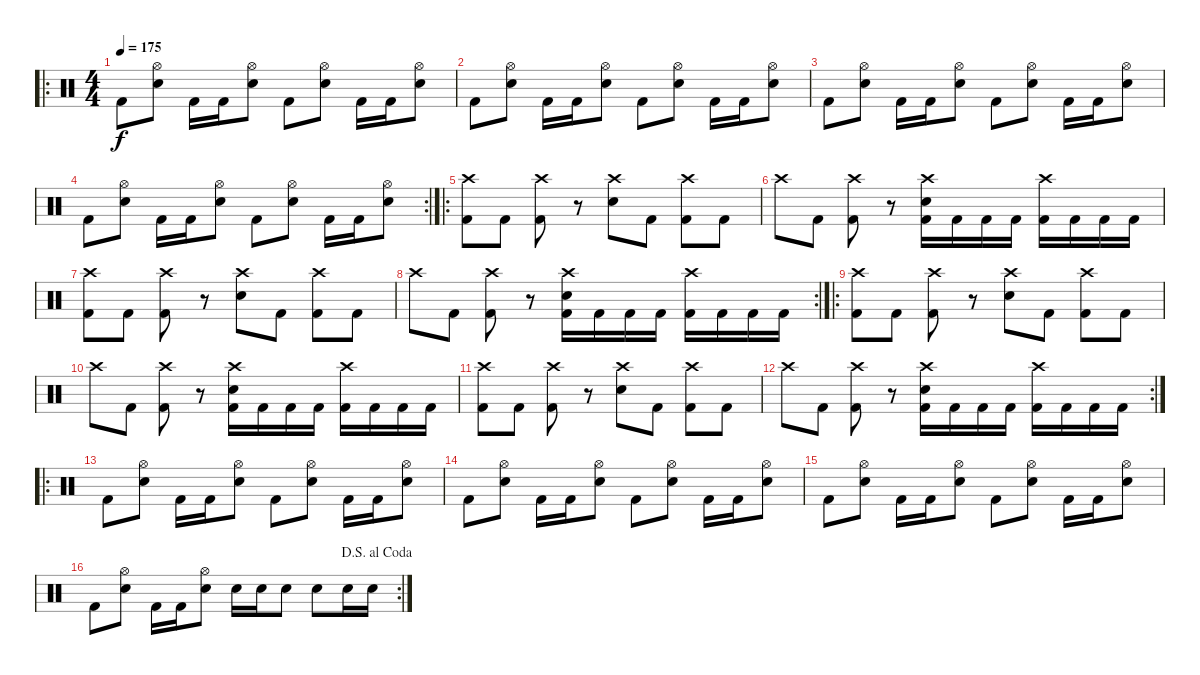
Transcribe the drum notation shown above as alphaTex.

\track "" {instrument percussion}
\staff {score}
\articulation defaults
\ro
\ts (4 4)
\tempo 175
\clef neutral
\ks c "Kick (hit) 2".8{dy f}
("Hi-Hat (open)" "Electric Snare (hit)").8 "Kick (hit) 2".16 "Kick (hit) 2".16 ("Hi-Hat (open)" "Electric Snare (hit)").8 "Kick (hit) 2".8 ("Hi-Hat (open)" "Electric Snare (hit)").8 "Kick (hit) 2".16 "Kick (hit) 2".16 ("Hi-Hat (open)" "Electric Snare (hit)").8 |
"Kick (hit) 2".8 ("Hi-Hat (open)" "Electric Snare (hit)").8 "Kick (hit) 2".16 "Kick (hit) 2".16 ("Hi-Hat (open)" "Electric Snare (hit)").8 "Kick (hit) 2".8 ("Hi-Hat (open)" "Electric Snare (hit)").8 "Kick (hit) 2".16 "Kick (hit) 2".16 ("Hi-Hat (open)" "Electric Snare (hit)").8 |
"Kick (hit) 2".8 ("Hi-Hat (open)" "Electric Snare (hit)").8 "Kick (hit) 2".16 "Kick (hit) 2".16 ("Hi-Hat (open)" "Electric Snare (hit)").8 "Kick (hit) 2".8 ("Hi-Hat (open)" "Electric Snare (hit)").8 "Kick (hit) 2".16 "Kick (hit) 2".16 ("Hi-Hat (open)" "Electric Snare (hit)").8 |
\rc 2 "Kick (hit) 2".8
("Hi-Hat (open)" "Electric Snare (hit)").8 "Kick (hit) 2".16 "Kick (hit) 2".16 ("Hi-Hat (open)" "Electric Snare (hit)").8 "Kick (hit) 2".8 ("Hi-Hat (open)" "Electric Snare (hit)").8 "Kick (hit) 2".16 "Kick (hit) 2".16 ("Hi-Hat (open)" "Electric Snare (hit)").8 |
\ro
("Crash high (hit)" "Kick (hit) 2").8 "Kick (hit) 2".8 ("Crash high (hit)" "Kick (hit) 2").8 r.8 ("Crash high (hit)" "Electric Snare (hit)").8 "Kick (hit) 2".8 ("Crash high (hit)" "Kick (hit) 2").8 "Kick (hit) 2".8 |
"Crash high (hit)".8 "Kick (hit) 2".8 ("Crash high (hit)" "Kick (hit) 2").8 r.8 ("Crash high (hit)" "Electric Snare (hit)" "Kick (hit) 2").16 "Kick (hit) 2".16 "Kick (hit) 2".16 "Kick (hit) 2".16 ("Crash high (hit)" "Kick (hit) 2").16 "Kick (hit) 2".16 "Kick (hit) 2".16 "Kick (hit) 2".16 |
("Crash high (hit)" "Kick (hit) 2").8 "Kick (hit) 2".8 ("Crash high (hit)" "Kick (hit) 2").8 r.8 ("Crash high (hit)" "Electric Snare (hit)").8 "Kick (hit) 2".8 ("Crash high (hit)" "Kick (hit) 2").8 "Kick (hit) 2".8 |
\rc 2 "Crash high (hit)".8 "Kick (hit) 2".8
("Crash high (hit)" "Kick (hit) 2").8 r.8 ("Crash high (hit)" "Electric Snare (hit)" "Kick (hit) 2").16 "Kick (hit) 2".16 "Kick (hit) 2".16 "Kick (hit) 2".16 ("Crash high (hit)" "Kick (hit) 2").16 "Kick (hit) 2".16 "Kick (hit) 2".16 "Kick (hit) 2".16 |
\ro
("Crash high (hit)" "Kick (hit) 2").8 "Kick (hit) 2".8 ("Crash high (hit)" "Kick (hit) 2").8 r.8 ("Crash high (hit)" "Electric Snare (hit)").8 "Kick (hit) 2".8 ("Crash high (hit)" "Kick (hit) 2").8 "Kick (hit) 2".8 |
"Crash high (hit)".8 "Kick (hit) 2".8 ("Crash high (hit)" "Kick (hit) 2").8 r.8 ("Crash high (hit)" "Electric Snare (hit)" "Kick (hit) 2").16 "Kick (hit) 2".16 "Kick (hit) 2".16 "Kick (hit) 2".16 ("Crash high (hit)" "Kick (hit) 2").16 "Kick (hit) 2".16 "Kick (hit) 2".16 "Kick (hit) 2".16 |
("Crash high (hit)" "Kick (hit) 2").8 "Kick (hit) 2".8 ("Crash high (hit)" "Kick (hit) 2").8 r.8 ("Crash high (hit)" "Electric Snare (hit)").8 "Kick (hit) 2".8 ("Crash high (hit)" "Kick (hit) 2").8 "Kick (hit) 2".8 |
\rc 2 "Crash high (hit)".8 "Kick (hit) 2".8
("Crash high (hit)" "Kick (hit) 2").8 r.8 ("Crash high (hit)" "Electric Snare (hit)" "Kick (hit) 2").16 "Kick (hit) 2".16 "Kick (hit) 2".16 "Kick (hit) 2".16 ("Crash high (hit)" "Kick (hit) 2").16 "Kick (hit) 2".16 "Kick (hit) 2".16 "Kick (hit) 2".16 |
\ro "Kick (hit) 2".8
("Hi-Hat (open)" "Electric Snare (hit)").8 "Kick (hit) 2".16 "Kick (hit) 2".16 ("Hi-Hat (open)" "Electric Snare (hit)").8 "Kick (hit) 2".8 ("Hi-Hat (open)" "Electric Snare (hit)").8 "Kick (hit) 2".16 "Kick (hit) 2".16 ("Hi-Hat (open)" "Electric Snare (hit)").8 |
"Kick (hit) 2".8 ("Hi-Hat (open)" "Electric Snare (hit)").8 "Kick (hit) 2".16 "Kick (hit) 2".16 ("Hi-Hat (open)" "Electric Snare (hit)").8 "Kick (hit) 2".8 ("Hi-Hat (open)" "Electric Snare (hit)").8 "Kick (hit) 2".16 "Kick (hit) 2".16 ("Hi-Hat (open)" "Electric Snare (hit)").8 |
"Kick (hit) 2".8 ("Hi-Hat (open)" "Electric Snare (hit)").8 "Kick (hit) 2".16 "Kick (hit) 2".16 ("Hi-Hat (open)" "Electric Snare (hit)").8 "Kick (hit) 2".8 ("Hi-Hat (open)" "Electric Snare (hit)").8 "Kick (hit) 2".16 "Kick (hit) 2".16 ("Hi-Hat (open)" "Electric Snare (hit)").8 |
\rc 2
\jump dalsegnoalcoda "Kick (hit) 2".8
("Hi-Hat (open)" "Electric Snare (hit)").8 "Kick (hit) 2".16 "Kick (hit) 2".16 ("Hi-Hat (open)" "Electric Snare (hit)").8 "Electric Snare (hit)".16 "Electric Snare (hit)".16 "Electric Snare (hit)".8 "Electric Snare (hit)".8 "Electric Snare (hit)".16 "Electric Snare (hit)".16
